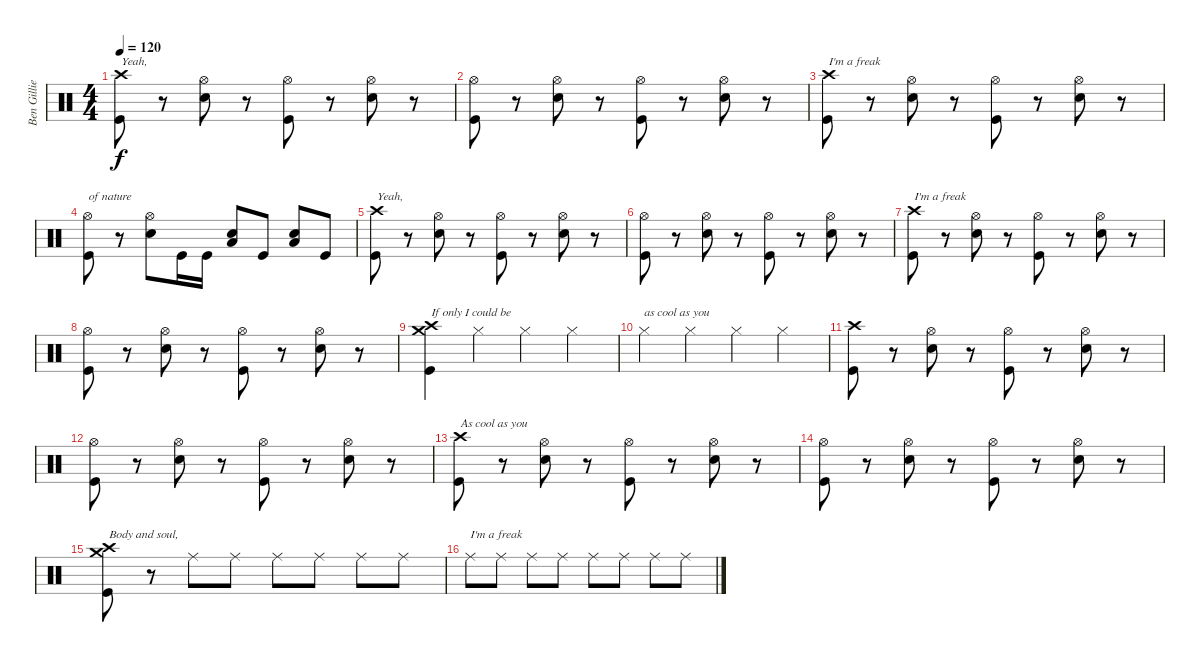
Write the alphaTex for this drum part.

\track ("Ben Gillies" "Ben Gillie") {instrument percussion}
\staff {score}
\articulation defaults
\ts (4 4)
\tempo 120
\clef neutral
\ks c
("Crash high (hit)" "Kick (hit)").8{txt "Yeah," dy f} r.8 ("Electric Snare (hit)" "Hi-Hat (open)").8 r.8 ("Hi-Hat (open)" "Kick (hit)").8 r.8 ("Electric Snare (hit)" "Hi-Hat (open)").8 r.8 |
("Hi-Hat (open)" "Kick (hit)").8 r.8 ("Electric Snare (hit)" "Hi-Hat (open)").8 r.8 ("Hi-Hat (open)" "Kick (hit)").8 r.8 ("Electric Snare (hit)" "Hi-Hat (open)").8 r.8 |
("Crash high (hit)" "Kick (hit)").8{txt "I'm a freak"} r.8 ("Electric Snare (hit)" "Hi-Hat (open)").8 r.8 ("Hi-Hat (open)" "Kick (hit)").8 r.8 ("Electric Snare (hit)" "Hi-Hat (open)").8 r.8 |
("Hi-Hat (open)" "Kick (hit)").8{txt "of nature"} r.8 ("Electric Snare (hit)" "Hi-Hat (open)").8 "Kick (hit)".16 "Kick (hit)".16 ("Low Tom (hit)" "Electric Snare (hit)").8 "Kick (hit)".8 ("Low Floor Tom (hit)" "Electric Snare (hit)").8 "Kick (hit)".8 |
("Crash high (hit)" "Kick (hit)").8{txt "Yeah,"} r.8 ("Electric Snare (hit)" "Hi-Hat (open)").8 r.8 ("Hi-Hat (open)" "Kick (hit)").8 r.8 ("Electric Snare (hit)" "Hi-Hat (open)").8 r.8 |
("Hi-Hat (open)" "Kick (hit)").8 r.8 ("Electric Snare (hit)" "Hi-Hat (open)").8 r.8 ("Hi-Hat (open)" "Kick (hit)").8 r.8 ("Electric Snare (hit)" "Hi-Hat (open)").8 r.8 |
("Crash high (hit)" "Kick (hit)").8{txt "I'm a freak"} r.8 ("Electric Snare (hit)" "Hi-Hat (open)").8 r.8 ("Hi-Hat (open)" "Kick (hit)").8 r.8 ("Electric Snare (hit)" "Hi-Hat (open)").8 r.8 |
("Hi-Hat (open)" "Kick (hit)").8 r.8 ("Electric Snare (hit)" "Hi-Hat (open)").8 r.8 ("Hi-Hat (open)" "Kick (hit)").8 r.8 ("Electric Snare (hit)" "Hi-Hat (open)").8 r.8 |
("Crash high (hit)" "Crash medium (hit)" "Kick (hit)").4{txt "If only I could be"} "Hi-Hat (closed)".4 "Hi-Hat (closed)".4 "Hi-Hat (closed)".4 |
"Hi-Hat (closed)".4{txt "as cool as you"} "Hi-Hat (closed)".4 "Hi-Hat (closed)".4 "Hi-Hat (closed)".4 |
("Crash high (hit)" "Kick (hit)").8 r.8 ("Electric Snare (hit)" "Hi-Hat (open)").8 r.8 ("Hi-Hat (open)" "Kick (hit)").8 r.8 ("Electric Snare (hit)" "Hi-Hat (open)").8 r.8 |
("Hi-Hat (open)" "Kick (hit)").8 r.8 ("Electric Snare (hit)" "Hi-Hat (open)").8 r.8 ("Hi-Hat (open)" "Kick (hit)").8 r.8 ("Electric Snare (hit)" "Hi-Hat (open)").8 r.8 |
("Crash high (hit)" "Kick (hit)").8{txt "As cool as you"} r.8 ("Electric Snare (hit)" "Hi-Hat (open)").8 r.8 ("Hi-Hat (open)" "Kick (hit)").8 r.8 ("Electric Snare (hit)" "Hi-Hat (open)").8 r.8 |
("Hi-Hat (open)" "Kick (hit)").8 r.8 ("Electric Snare (hit)" "Hi-Hat (open)").8 r.8 ("Hi-Hat (open)" "Kick (hit)").8 r.8 ("Electric Snare (hit)" "Hi-Hat (open)").8 r.8 |
("Crash medium (hit)" "Crash high (hit)" "Kick (hit)").8{txt "Body and soul,"} r.8 "Ride (middle)".8 "Ride (middle)".8 "Ride (middle)".8 "Ride (middle)".8 "Ride (middle)".8 "Ride (middle)".8 |
"Ride (middle)".8{txt "I'm a freak"} "Ride (middle)".8 "Ride (middle)".8 "Ride (middle)".8 "Ride (middle)".8 "Ride (middle)".8 "Ride (middle)".8 "Ride (middle)".8
